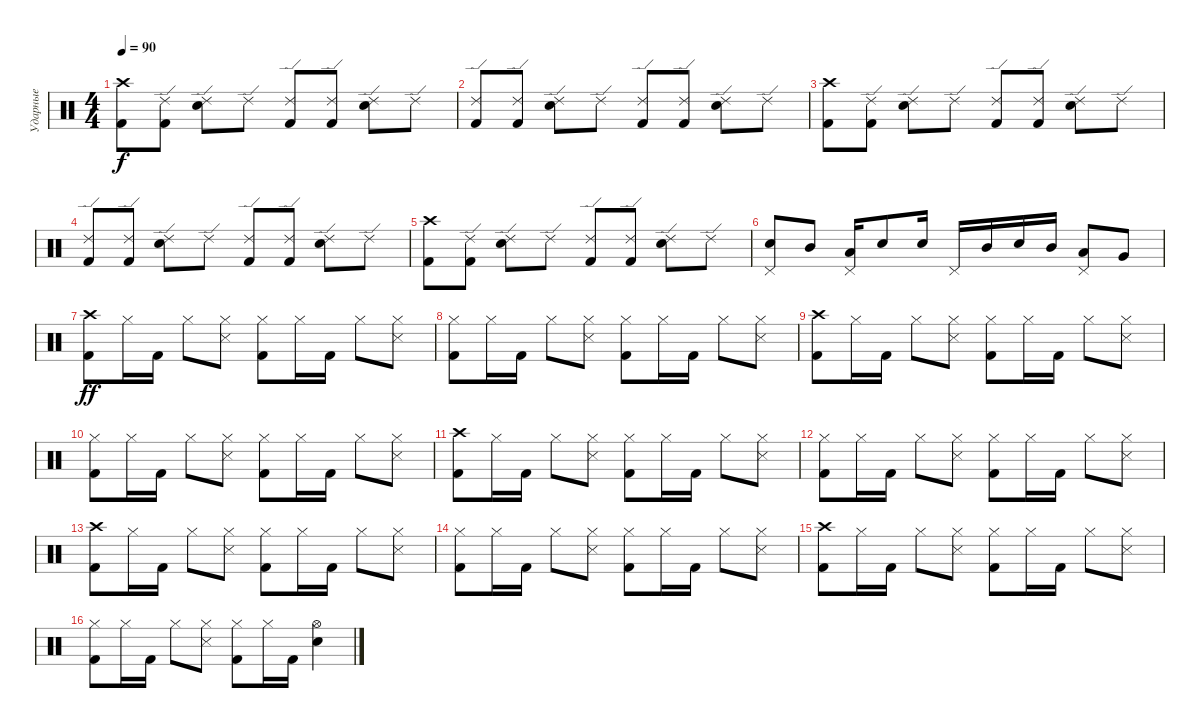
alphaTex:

\track ("Ударные" "Ударные") {instrument percussion}
\staff {score}
\articulation defaults
\ts (4 4)
\tempo 90
\clef neutral
\ks c
("Kick (hit) 2" "Crash high (hit)").8{dy f} ("Kick (hit) 2" "Ride (edge) 2").8 ("Electric Snare (hit)" "Ride (edge) 2").8 "Ride (edge) 2".8 ("Kick (hit) 2" "Ride (edge) 2").8 ("Kick (hit) 2" "Ride (edge) 2").8 ("Electric Snare (hit)" "Ride (edge) 2").8 "Ride (edge) 2".8 |
("Kick (hit) 2" "Ride (edge) 2").8 ("Kick (hit) 2" "Ride (edge) 2").8 ("Electric Snare (hit)" "Ride (edge) 2").8 "Ride (edge) 2".8 ("Kick (hit) 2" "Ride (edge) 2").8 ("Kick (hit) 2" "Ride (edge) 2").8 ("Electric Snare (hit)" "Ride (edge) 2").8 "Ride (edge) 2".8 |
("Kick (hit) 2" "Crash high (hit)").8 ("Kick (hit) 2" "Ride (edge) 2").8 ("Electric Snare (hit)" "Ride (edge) 2").8 "Ride (edge) 2".8 ("Kick (hit) 2" "Ride (edge) 2").8 ("Kick (hit) 2" "Ride (edge) 2").8 ("Electric Snare (hit)" "Ride (edge) 2").8 "Ride (edge) 2".8 |
("Kick (hit) 2" "Ride (edge) 2").8 ("Kick (hit) 2" "Ride (edge) 2").8 ("Electric Snare (hit)" "Ride (edge) 2").8 "Ride (edge) 2".8 ("Kick (hit) 2" "Ride (edge) 2").8 ("Kick (hit) 2" "Ride (edge) 2").8 ("Electric Snare (hit)" "Ride (edge) 2").8 "Ride (edge) 2".8 |
("Kick (hit) 2" "Crash high (hit)").8 ("Kick (hit) 2" "Ride (edge) 2").8 ("Electric Snare (hit)" "Ride (edge) 2").8 "Ride (edge) 2".8 ("Kick (hit) 2" "Ride (edge) 2").8 ("Kick (hit) 2" "Ride (edge) 2").8 ("Electric Snare (hit)" "Ride (edge) 2").8 "Ride (edge) 2".8 |
("Electric Snare (hit)" "Pedal Hi-Hat (hit)").8 "Mid Tom (hit)".8 ("Low Tom (hit)" "Pedal Hi-Hat (hit)").16 "Electric Snare (hit)".8 "Electric Snare (hit)".16 "Pedal Hi-Hat (hit)".16 "Mid Tom (hit)".16 "Electric Snare (hit)".16 "Mid Tom (hit)".16 ("Low Tom (hit)" "Pedal Hi-Hat (hit)").8 "Very Low Tom (hit)".8 |
("Crash high (hit)" "Kick (hit) 2").8{dy ff} "Hi-Hat (closed)".16 "Kick (hit) 2".16 "Hi-Hat (closed)".8 ("Hi-Hat (closed)" "Snare (side stick) 3").8 ("Hi-Hat (closed)" "Kick (hit) 2").8 "Hi-Hat (closed)".16 "Kick (hit) 2".16 "Hi-Hat (closed)".8 ("Hi-Hat (closed)" "Snare (side stick) 3").8 |
("Hi-Hat (closed)" "Kick (hit) 2").8 "Hi-Hat (closed)".16 "Kick (hit) 2".16 "Hi-Hat (closed)".8 ("Hi-Hat (closed)" "Snare (side stick) 3").8 ("Hi-Hat (closed)" "Kick (hit) 2").8 "Hi-Hat (closed)".16 "Kick (hit) 2".16 "Hi-Hat (closed)".8 ("Hi-Hat (closed)" "Snare (side stick) 3").8 |
("Crash high (hit)" "Kick (hit) 2").8 "Hi-Hat (closed)".16 "Kick (hit) 2".16 "Hi-Hat (closed)".8 ("Hi-Hat (closed)" "Snare (side stick) 3").8 ("Hi-Hat (closed)" "Kick (hit) 2").8 "Hi-Hat (closed)".16 "Kick (hit) 2".16 "Hi-Hat (closed)".8 ("Hi-Hat (closed)" "Snare (side stick) 3").8 |
("Hi-Hat (closed)" "Kick (hit) 2").8 "Hi-Hat (closed)".16 "Kick (hit) 2".16 "Hi-Hat (closed)".8 ("Hi-Hat (closed)" "Snare (side stick) 3").8 ("Hi-Hat (closed)" "Kick (hit) 2").8 "Hi-Hat (closed)".16 "Kick (hit) 2".16 "Hi-Hat (closed)".8 ("Hi-Hat (closed)" "Snare (side stick) 3").8 |
("Crash high (hit)" "Kick (hit) 2").8 "Hi-Hat (closed)".16 "Kick (hit) 2".16 "Hi-Hat (closed)".8 ("Hi-Hat (closed)" "Snare (side stick) 3").8 ("Hi-Hat (closed)" "Kick (hit) 2").8 "Hi-Hat (closed)".16 "Kick (hit) 2".16 "Hi-Hat (closed)".8 ("Hi-Hat (closed)" "Snare (side stick) 3").8 |
("Hi-Hat (closed)" "Kick (hit) 2").8 "Hi-Hat (closed)".16 "Kick (hit) 2".16 "Hi-Hat (closed)".8 ("Hi-Hat (closed)" "Snare (side stick) 3").8 ("Hi-Hat (closed)" "Kick (hit) 2").8 "Hi-Hat (closed)".16 "Kick (hit) 2".16 "Hi-Hat (closed)".8 ("Hi-Hat (closed)" "Snare (side stick) 3").8 |
("Crash high (hit)" "Kick (hit) 2").8 "Hi-Hat (closed)".16 "Kick (hit) 2".16 "Hi-Hat (closed)".8 ("Hi-Hat (closed)" "Snare (side stick) 3").8 ("Hi-Hat (closed)" "Kick (hit) 2").8 "Hi-Hat (closed)".16 "Kick (hit) 2".16 "Hi-Hat (closed)".8 ("Hi-Hat (closed)" "Snare (side stick) 3").8 |
("Hi-Hat (closed)" "Kick (hit) 2").8 "Hi-Hat (closed)".16 "Kick (hit) 2".16 "Hi-Hat (closed)".8 ("Hi-Hat (closed)" "Snare (side stick) 3").8 ("Hi-Hat (closed)" "Kick (hit) 2").8 "Hi-Hat (closed)".16 "Kick (hit) 2".16 "Hi-Hat (closed)".8 ("Hi-Hat (closed)" "Snare (side stick) 3").8 |
("Crash high (hit)" "Kick (hit) 2").8 "Hi-Hat (closed)".16 "Kick (hit) 2".16 "Hi-Hat (closed)".8 ("Hi-Hat (closed)" "Snare (side stick) 3").8 ("Hi-Hat (closed)" "Kick (hit) 2").8 "Hi-Hat (closed)".16 "Kick (hit) 2".16 "Hi-Hat (closed)".8 ("Hi-Hat (closed)" "Snare (side stick) 3").8 |
("Hi-Hat (closed)" "Kick (hit) 2").8 "Hi-Hat (closed)".16 "Kick (hit) 2".16 "Hi-Hat (closed)".8 ("Hi-Hat (closed)" "Snare (side stick) 3").8 ("Hi-Hat (closed)" "Kick (hit) 2").8 "Hi-Hat (closed)".16 "Kick (hit) 2".16 ("Electric Snare (hit)" "Hi-Hat (open)").4
